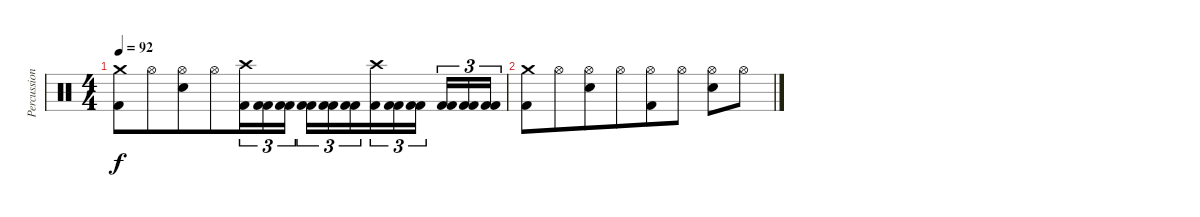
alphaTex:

\track ("Percussion" "Percussion") {instrument percussion}
\staff {score}
\articulation defaults
\ts (4 4)
\tempo 92
\clef neutral
\ks c
("Crash medium (hit)" "Kick (hit) 2").8{dy f beam merge} "Hi-Hat (open)".8{beam merge} ("Hi-Hat (open)" "Electric Snare (hit)").8{beam merge} "Hi-Hat (open)".8{beam merge} ("Crash high (hit)" "Kick (hit) 2").16{tu (3 2) beam merge} ("Kick (hit) 2" "Kick (hit) 2").16{tu (3 2)} ("Kick (hit) 2" "Kick (hit) 2").16{tu (3 2) beam splitsecondary} ("Kick (hit) 2" "Kick (hit) 2").16{tu (3 2)} ("Kick (hit) 2" "Kick (hit) 2").16{tu (3 2)} ("Kick (hit) 2" "Kick (hit) 2").16{tu (3 2) beam merge} ("Crash high (hit)" "Kick (hit) 2").16{tu (3 2) beam merge} ("Kick (hit) 2" "Kick (hit) 2").16{tu (3 2)} ("Kick (hit) 2" "Kick (hit) 2").16{tu (3 2) beam splitsecondary} ("Kick (hit) 2" "Kick (hit) 2").16{tu (3 2)} ("Kick (hit) 2" "Kick (hit) 2").16{tu (3 2) beam merge} ("Kick (hit) 2" "Kick (hit) 2").16{tu (3 2)} |
("Crash medium (hit)" "Kick (hit) 2").8{beam merge} "Hi-Hat (open)".8{beam merge} ("Hi-Hat (open)" "Electric Snare (hit)").8 "Hi-Hat (open)".8{beam merge} ("Hi-Hat (open)" "Kick (hit) 2").8{beam merge} "Hi-Hat (open)".8 ("Hi-Hat (open)" "Electric Snare (hit)").8 "Hi-Hat (open)".8
